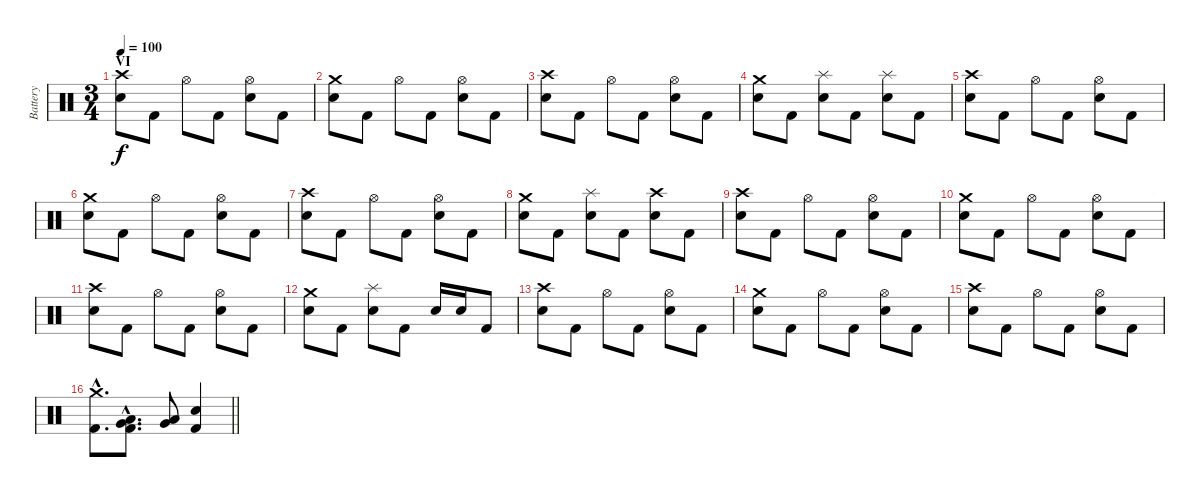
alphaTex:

\track ("Battery" "Battery") {instrument percussion}
\staff {score}
\articulation defaults
\ts (3 4)
\section ("" "VI")
\tempo 100
\clef neutral
\ks c
("Crash high (hit)" "Electric Snare (hit)").8{dy f} "Kick (hit) 2".8 "Hi-Hat (open)".8 "Kick (hit) 2".8 ("Hi-Hat (open)" "Electric Snare (hit)").8 "Kick (hit) 2".8 |
("Crash medium (hit)" "Electric Snare (hit)").8 "Kick (hit) 2".8 "Hi-Hat (open)".8 "Kick (hit) 2".8 ("Hi-Hat (open)" "Electric Snare (hit)").8 "Kick (hit) 2".8 |
("Crash high (hit)" "Electric Snare (hit)").8 "Kick (hit) 2".8 "Hi-Hat (open)".8 "Kick (hit) 2".8 ("Hi-Hat (open)" "Electric Snare (hit)").8 "Kick (hit) 2".8 |
("Crash medium (hit)" "Electric Snare (hit)").8 "Kick (hit) 2".8 ("Splash (hit)" "Electric Snare (hit)").8 "Kick (hit) 2".8 ("Splash (hit)" "Electric Snare (hit)").8 "Kick (hit) 2".8 |
("Crash high (hit)" "Electric Snare (hit)").8 "Kick (hit) 2".8 "Hi-Hat (open)".8 "Kick (hit) 2".8 ("Hi-Hat (open)" "Electric Snare (hit)").8 "Kick (hit) 2".8 |
("Crash medium (hit)" "Electric Snare (hit)").8 "Kick (hit) 2".8 "Hi-Hat (open)".8 "Kick (hit) 2".8 ("Hi-Hat (open)" "Electric Snare (hit)").8 "Kick (hit) 2".8 |
("Crash high (hit)" "Electric Snare (hit)").8 "Kick (hit) 2".8 "Hi-Hat (open)".8 "Kick (hit) 2".8 ("Hi-Hat (open)" "Electric Snare (hit)").8 "Kick (hit) 2".8 |
("Crash medium (hit)" "Electric Snare (hit)").8 "Kick (hit) 2".8 ("Splash (hit)" "Electric Snare (hit)").8 "Kick (hit) 2".8 ("Crash high (hit)" "Electric Snare (hit)").8 "Kick (hit) 2".8 |
("Crash high (hit)" "Electric Snare (hit)").8 "Kick (hit) 2".8 "Hi-Hat (open)".8 "Kick (hit) 2".8 ("Hi-Hat (open)" "Electric Snare (hit)").8 "Kick (hit) 2".8 |
("Crash medium (hit)" "Electric Snare (hit)").8 "Kick (hit) 2".8 "Hi-Hat (open)".8 "Kick (hit) 2".8 ("Hi-Hat (open)" "Electric Snare (hit)").8 "Kick (hit) 2".8 |
("Crash high (hit)" "Electric Snare (hit)").8 "Kick (hit) 2".8 "Hi-Hat (open)".8 "Kick (hit) 2".8 ("Hi-Hat (open)" "Electric Snare (hit)").8 "Kick (hit) 2".8 |
("Crash medium (hit)" "Electric Snare (hit)").8 "Kick (hit) 2".8 ("Splash (hit)" "Electric Snare (hit)").8 "Kick (hit) 2".8 "Electric Snare (hit)".16 "Electric Snare (hit)".16 "Kick (hit) 2".8 |
("Crash high (hit)" "Electric Snare (hit)").8 "Kick (hit) 2".8 "Hi-Hat (open)".8 "Kick (hit) 2".8 ("Hi-Hat (open)" "Electric Snare (hit)").8 "Kick (hit) 2".8 |
("Crash medium (hit)" "Electric Snare (hit)").8 "Kick (hit) 2".8 "Hi-Hat (open)".8 "Kick (hit) 2".8 ("Hi-Hat (open)" "Electric Snare (hit)").8 "Kick (hit) 2".8 |
("Crash high (hit)" "Electric Snare (hit)").8 "Kick (hit) 2".8 "Hi-Hat (open)".8 "Kick (hit) 2".8 ("Hi-Hat (open)" "Electric Snare (hit)").8 "Kick (hit) 2".8 |
\barLineRight lightlight
("Crash medium (hit)"{hac} "Kick (hit) 2"{hac}).8{d} ("Low Tom (hit)"{hac} "Very Low Tom (hit)"{hac} "Kick (hit) 2"{hac}).8{d} ("Very Low Tom (hit)" "Low Floor Tom (hit)").8 ("Electric Snare (hit)" "Kick (hit) 2").4
